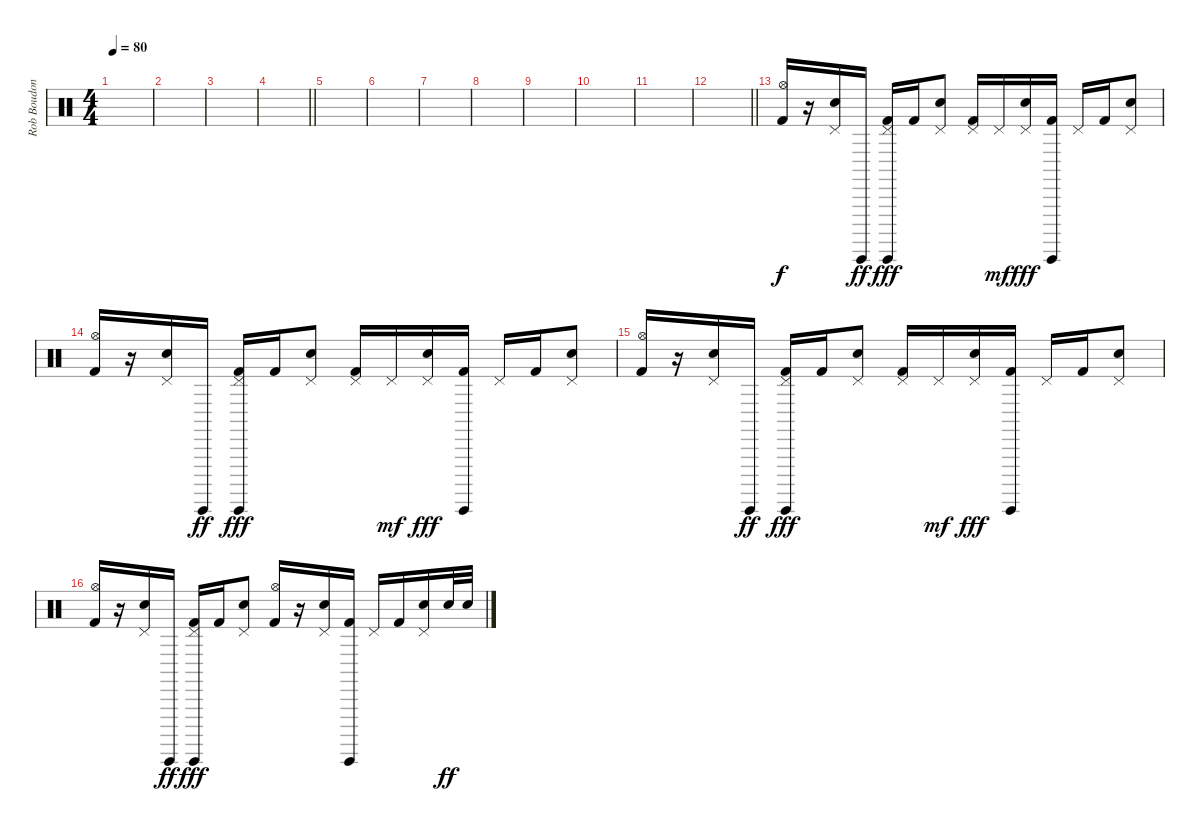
\track ("Rob Boudon [Drums]" "Rob Boudon") {instrument percussion}
\staff {score}
\articulation defaults
\ts (4 4)
\tempo 80
\clef neutral
\ks c
|
|
|
\barLineRight lightlight
|
|
|
|
|
|
|
|
\barLineRight lightlight
|
("Hi-Hat (open)" "Kick (hit) 2").16 r.16 ("Pedal Hi-Hat (hit)" "Electric Snare (hit)").16 "Guiro (hit)".16{dy ff} ("Guiro (hit)" "Pedal Hi-Hat (hit)" "Kick (hit) 2").16{dy fff} "Kick (hit) 2".16 ("Pedal Hi-Hat (hit)" "Electric Snare (hit)").8 ("Pedal Hi-Hat (hit)" "Kick (hit) 2").16 "Pedal Hi-Hat (hit)".16{dy mf} ("Pedal Hi-Hat (hit)" "Electric Snare (hit)").16{dy fff} ("Guiro (hit)" "Kick (hit) 2").16 "Pedal Hi-Hat (hit)".16 "Kick (hit) 2".16 ("Pedal Hi-Hat (hit)" "Electric Snare (hit)").8 |
("Hi-Hat (open)" "Kick (hit) 2").16 r.16 ("Pedal Hi-Hat (hit)" "Electric Snare (hit)").16 "Guiro (hit)".16{dy ff} ("Guiro (hit)" "Pedal Hi-Hat (hit)" "Kick (hit) 2").16{dy fff} "Kick (hit) 2".16 ("Pedal Hi-Hat (hit)" "Electric Snare (hit)").8 ("Pedal Hi-Hat (hit)" "Kick (hit) 2").16 "Pedal Hi-Hat (hit)".16{dy mf} ("Pedal Hi-Hat (hit)" "Electric Snare (hit)").16{dy fff} ("Guiro (hit)" "Kick (hit) 2").16 "Pedal Hi-Hat (hit)".16 "Kick (hit) 2".16 ("Pedal Hi-Hat (hit)" "Electric Snare (hit)").8 |
("Hi-Hat (open)" "Kick (hit) 2").16 r.16 ("Pedal Hi-Hat (hit)" "Electric Snare (hit)").16 "Guiro (hit)".16{dy ff} ("Guiro (hit)" "Pedal Hi-Hat (hit)" "Kick (hit) 2").16{dy fff} "Kick (hit) 2".16 ("Pedal Hi-Hat (hit)" "Electric Snare (hit)").8 ("Pedal Hi-Hat (hit)" "Kick (hit) 2").16 "Pedal Hi-Hat (hit)".16{dy mf} ("Pedal Hi-Hat (hit)" "Electric Snare (hit)").16{dy fff} ("Guiro (hit)" "Kick (hit) 2").16 "Pedal Hi-Hat (hit)".16 "Kick (hit) 2".16 ("Pedal Hi-Hat (hit)" "Electric Snare (hit)").8 |
("Hi-Hat (open)" "Kick (hit) 2").16 r.16 ("Pedal Hi-Hat (hit)" "Electric Snare (hit)").16 "Guiro (hit)".16{dy ff} ("Guiro (hit)" "Pedal Hi-Hat (hit)" "Kick (hit) 2").16{dy fff} "Kick (hit) 2".16 ("Pedal Hi-Hat (hit)" "Electric Snare (hit)").8 ("Hi-Hat (open)" "Kick (hit) 2").16 r.16 ("Pedal Hi-Hat (hit)" "Electric Snare (hit)").16 ("Guiro (hit)" "Kick (hit) 2").16 "Pedal Hi-Hat (hit)".16 "Kick (hit) 2".16 ("Pedal Hi-Hat (hit)" "Electric Snare (hit)").16 "Electric Snare (hit)".32{dy ff} "Electric Snare (hit)".32
